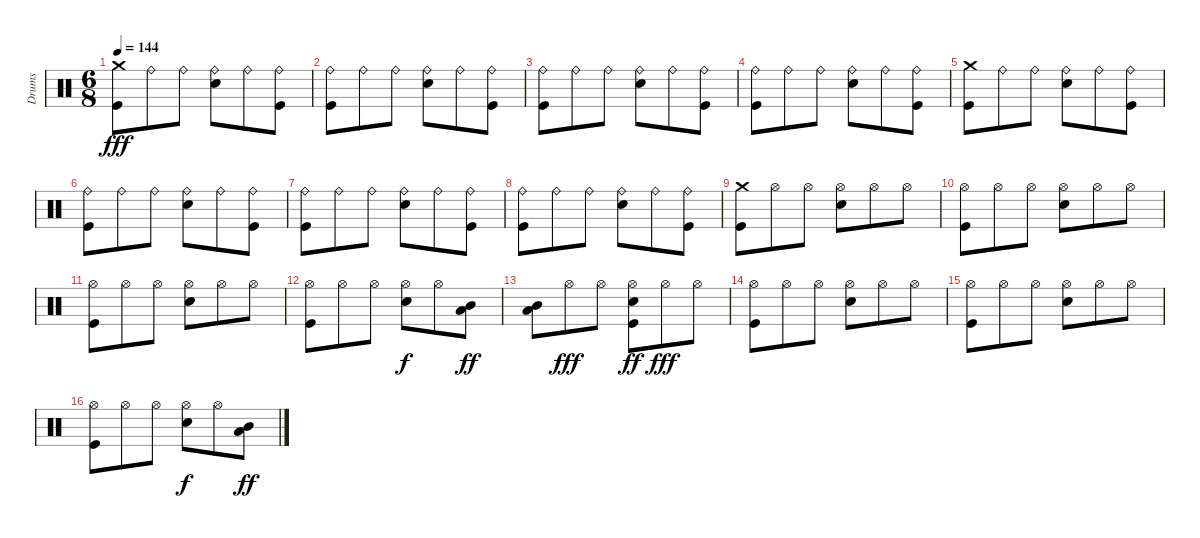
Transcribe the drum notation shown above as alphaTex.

\track ("Drums" "Drums") {instrument percussion}
\staff {score}
\articulation defaults
\ts (6 8)
\tempo 144
\clef neutral
\ks c
("Crash medium (hit)" "Kick (hit)").8{dy fff} "Ride (bell)".8 "Ride (bell)".8 ("Ride (bell)" "Snare (hit) 2").8 "Ride (bell)".8 ("Ride (bell)" "Kick (hit)").8 |
("Ride (bell)" "Kick (hit)").8 "Ride (bell)".8 "Ride (bell)".8 ("Ride (bell)" "Snare (hit) 2").8 "Ride (bell)".8 ("Ride (bell)" "Kick (hit)").8 |
("Ride (bell)" "Kick (hit)").8 "Ride (bell)".8 "Ride (bell)".8 ("Ride (bell)" "Snare (hit) 2").8 "Ride (bell)".8 ("Ride (bell)" "Kick (hit)").8 |
("Ride (bell)" "Kick (hit)").8 "Ride (bell)".8 "Ride (bell)".8 ("Ride (bell)" "Snare (hit) 2").8 "Ride (bell)".8 ("Ride (bell)" "Kick (hit)").8 |
("Crash medium (hit)" "Kick (hit)").8 "Ride (bell)".8 "Ride (bell)".8 ("Ride (bell)" "Snare (hit) 2").8 "Ride (bell)".8 ("Ride (bell)" "Kick (hit)").8 |
("Ride (bell)" "Kick (hit)").8 "Ride (bell)".8 "Ride (bell)".8 ("Ride (bell)" "Snare (hit) 2").8 "Ride (bell)".8 ("Ride (bell)" "Kick (hit)").8 |
("Ride (bell)" "Kick (hit)").8 "Ride (bell)".8 "Ride (bell)".8 ("Ride (bell)" "Snare (hit) 2").8 "Ride (bell)".8 ("Ride (bell)" "Kick (hit)").8 |
("Ride (bell)" "Kick (hit)").8 "Ride (bell)".8 "Ride (bell)".8 ("Ride (bell)" "Snare (hit) 2").8 "Ride (bell)".8 ("Ride (bell)" "Kick (hit)").8 |
("Crash medium (hit)" "Kick (hit)").8 "Hi-Hat (open)".8 "Hi-Hat (open)".8 ("Hi-Hat (open)" "Snare (hit) 2").8 "Hi-Hat (open)".8 "Hi-Hat (open)".8 |
("Hi-Hat (open)" "Kick (hit)").8 "Hi-Hat (open)".8 "Hi-Hat (open)".8 ("Hi-Hat (open)" "Snare (hit) 2").8 "Hi-Hat (open)".8 "Hi-Hat (open)".8 |
("Hi-Hat (open)" "Kick (hit)").8 "Hi-Hat (open)".8 "Hi-Hat (open)".8 ("Hi-Hat (open)" "Snare (hit) 2").8 "Hi-Hat (open)".8 "Hi-Hat (open)".8 |
("Hi-Hat (open)" "Kick (hit)").8 "Hi-Hat (open)".8 "Hi-Hat (open)".8 ("Hi-Hat (open)" "Snare (hit) 2").8{dy f} "Hi-Hat (open)".8 ("Low Tom (hit)" "Mid Tom (hit)").8{dy ff} |
("Low Tom (hit)" "Mid Tom (hit)").8 "Hi-Hat (open)".8{dy fff} "Hi-Hat (open)".8 ("Hi-Hat (open)" "Snare (hit) 2" "Kick (hit)").8{dy ff} "Hi-Hat (open)".8{dy fff} "Hi-Hat (open)".8 |
("Hi-Hat (open)" "Kick (hit)").8 "Hi-Hat (open)".8 "Hi-Hat (open)".8 ("Hi-Hat (open)" "Snare (hit) 2").8 "Hi-Hat (open)".8 "Hi-Hat (open)".8 |
("Hi-Hat (open)" "Kick (hit)").8 "Hi-Hat (open)".8 "Hi-Hat (open)".8 ("Hi-Hat (open)" "Snare (hit) 2").8 "Hi-Hat (open)".8 "Hi-Hat (open)".8 |
("Hi-Hat (open)" "Kick (hit)").8 "Hi-Hat (open)".8 "Hi-Hat (open)".8 ("Hi-Hat (open)" "Snare (hit) 2").8{dy f} "Hi-Hat (open)".8 ("Low Tom (hit)" "Mid Tom (hit)").8{dy ff}
